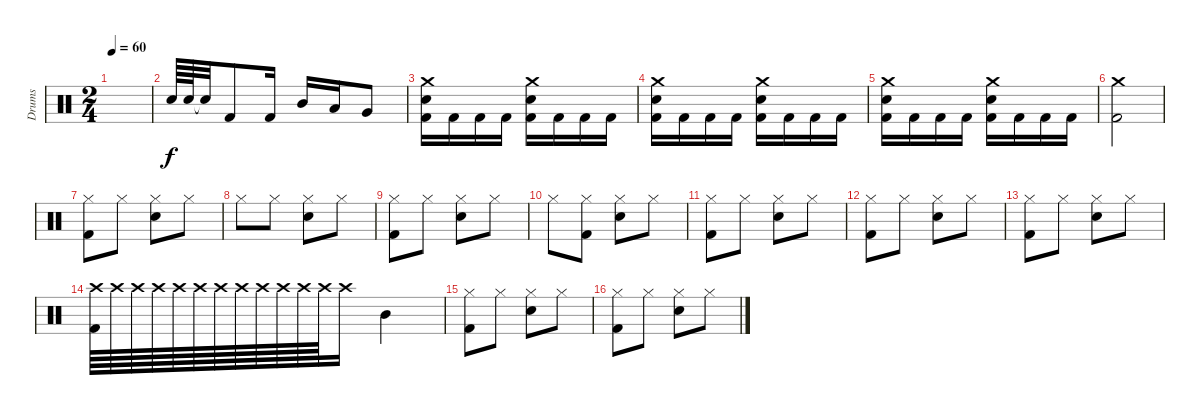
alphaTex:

\track ("Drums" "Drums") {instrument percussion}
\staff {score}
\articulation defaults
\ts (2 4)
\tempo 60
\clef neutral
\ks c
|
"Electric Snare (hit)".64 "Electric Snare (hit)".64 "Snare (hit)"{t}.32 "Kick (hit) 2".8 "Kick (hit) 2".16 "Mid Tom (hit)".16 "Low Tom (hit)".16 "Very Low Tom (hit)".8 |
("Crash medium (hit)" "Electric Snare (hit)" "Kick (hit) 2").16 "Kick (hit) 2".16 "Kick (hit) 2".16 "Kick (hit) 2".16 ("Crash medium (hit)" "Electric Snare (hit)" "Kick (hit) 2").16 "Kick (hit) 2".16 "Kick (hit) 2".16 "Kick (hit) 2".16 |
("Crash medium (hit)" "Electric Snare (hit)" "Kick (hit) 2").16 "Kick (hit) 2".16 "Kick (hit) 2".16 "Kick (hit) 2".16 ("Crash medium (hit)" "Electric Snare (hit)" "Kick (hit) 2").16 "Kick (hit) 2".16 "Kick (hit) 2".16 "Kick (hit) 2".16 |
("Crash medium (hit)" "Electric Snare (hit)" "Kick (hit) 2").16 "Kick (hit) 2".16 "Kick (hit) 2".16 "Kick (hit) 2".16 ("Crash medium (hit)" "Electric Snare (hit)" "Kick (hit) 2").16 "Kick (hit) 2".16 "Kick (hit) 2".16 "Kick (hit) 2".16 |
("Crash medium (hit)" "Kick (hit) 2").2 |
("Hi-Hat (closed)" "Kick (hit) 2").8 "Hi-Hat (closed)".8 ("Hi-Hat (closed)" "Hand Clap (hit)").8 "Hi-Hat (closed)".8 |
"Hi-Hat (closed)".8 "Hi-Hat (closed)".8 ("Hi-Hat (closed)" "Hand Clap (hit)").8 "Hi-Hat (closed)".8 |
("Hi-Hat (closed)" "Kick (hit) 2").8 "Hi-Hat (closed)".8 ("Hi-Hat (closed)" "Hand Clap (hit)").8 "Hi-Hat (closed)".8 |
"Hi-Hat (closed)".8 ("Hi-Hat (closed)" "Kick (hit) 2").8 ("Hi-Hat (closed)" "Hand Clap (hit)").8 "Hi-Hat (closed)".8 |
("Hi-Hat (closed)" "Kick (hit) 2").8 "Hi-Hat (closed)".8 ("Hi-Hat (closed)" "Hand Clap (hit)").8 "Hi-Hat (closed)".8 |
("Hi-Hat (closed)" "Kick (hit) 2").8 "Hi-Hat (closed)".8 ("Hi-Hat (closed)" "Hand Clap (hit)").8 "Hi-Hat (closed)".8 |
("Hi-Hat (closed)" "Kick (hit) 2").8 "Hi-Hat (closed)".8 ("Hi-Hat (closed)" "Hand Clap (hit)").8 "Hi-Hat (closed)".8 |
("Crash high (hit)" "Kick (hit) 2").64{volume 5} "Crash high (hit)".64{volume 5} "Crash high (hit)".64{volume 5} "Crash high (hit)".64{volume 6} "Crash high (hit)".64{volume 6} "Crash high (hit)".64{volume 6} "Crash high (hit)".64{volume 8} "Crash high (hit)".64{volume 8} "Crash high (hit)".64{volume 8} "Crash high (hit)".64{volume 8} "Crash high (hit)".64{volume 8} "Crash high (hit)".64{volume 8} "Crash high (hit)".16{volume 8} "Mid Tom (hit)".4{volume 16} |
("Hi-Hat (closed)" "Kick (hit) 2").8 "Hi-Hat (closed)".8 ("Hi-Hat (closed)" "Hand Clap (hit)").8 "Hi-Hat (closed)".8 |
("Hi-Hat (closed)" "Kick (hit) 2").8 "Hi-Hat (closed)".8 ("Hi-Hat (closed)" "Electric Snare (hit)").8 "Hi-Hat (closed)".8
